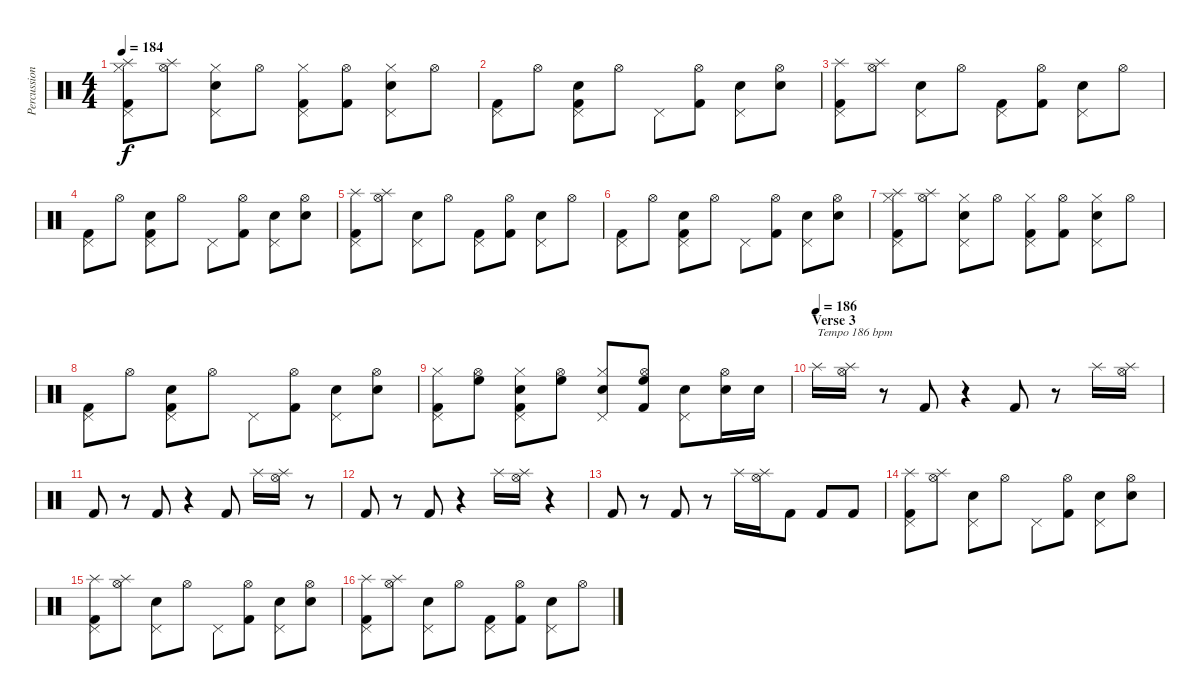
\track ("Percussion" "Percussion") {instrument percussion}
\staff {score}
\articulation defaults
\ts (4 4)
\tempo 184
\clef neutral
\ks c
("Pedal Hi-Hat (hit)" "Hi-Hat (closed)" "Splash (hit)" "Kick (hit) 2").8{dy f} ("Hi-Hat (open)" "Splash (hit)").8 ("Pedal Hi-Hat (hit)" "Hi-Hat (closed)" "Snare (hit) 2").8 "Hi-Hat (open)".8 ("Pedal Hi-Hat (hit)" "Hi-Hat (closed)" "Kick (hit) 2").8 ("Hi-Hat (open)" "Kick (hit) 2").8 ("Pedal Hi-Hat (hit)" "Hi-Hat (closed)" "Snare (hit) 2").8 "Hi-Hat (open)".8 |
("Pedal Hi-Hat (hit)" "Kick (hit) 2").8 "Hi-Hat (open)".8 ("Pedal Hi-Hat (hit)" "Snare (hit) 2" "Kick (hit) 2").8 "Hi-Hat (open)".8 "Pedal Hi-Hat (hit)".8 ("Hi-Hat (open)" "Kick (hit) 2").8 ("Pedal Hi-Hat (hit)" "Snare (hit) 2").8 ("Hi-Hat (open)" "Snare (hit) 2").8 |
("Pedal Hi-Hat (hit)" "Splash (hit)" "Kick (hit) 2").8 ("Hi-Hat (open)" "Splash (hit)").8 ("Pedal Hi-Hat (hit)" "Snare (hit) 2").8 "Hi-Hat (open)".8 ("Pedal Hi-Hat (hit)" "Kick (hit) 2").8 ("Hi-Hat (open)" "Kick (hit) 2").8 ("Pedal Hi-Hat (hit)" "Snare (hit) 2").8 "Hi-Hat (open)".8 |
("Pedal Hi-Hat (hit)" "Kick (hit) 2").8 "Hi-Hat (open)".8 ("Pedal Hi-Hat (hit)" "Snare (hit) 2" "Kick (hit) 2").8 "Hi-Hat (open)".8 "Pedal Hi-Hat (hit)".8 ("Hi-Hat (open)" "Kick (hit) 2").8 ("Pedal Hi-Hat (hit)" "Snare (hit) 2").8 ("Hi-Hat (open)" "Snare (hit) 2").8 |
("Pedal Hi-Hat (hit)" "Splash (hit)" "Kick (hit) 2").8 ("Hi-Hat (open)" "Splash (hit)").8 ("Pedal Hi-Hat (hit)" "Snare (hit) 2").8 "Hi-Hat (open)".8 ("Pedal Hi-Hat (hit)" "Kick (hit) 2").8 ("Hi-Hat (open)" "Kick (hit) 2").8 ("Pedal Hi-Hat (hit)" "Snare (hit) 2").8 "Hi-Hat (open)".8 |
("Pedal Hi-Hat (hit)" "Kick (hit) 2").8 "Hi-Hat (open)".8 ("Pedal Hi-Hat (hit)" "Snare (hit) 2" "Kick (hit) 2").8 "Hi-Hat (open)".8 "Pedal Hi-Hat (hit)".8 ("Hi-Hat (open)" "Kick (hit) 2").8 ("Pedal Hi-Hat (hit)" "Snare (hit) 2").8 ("Hi-Hat (open)" "Snare (hit) 2").8 |
("Pedal Hi-Hat (hit)" "Hi-Hat (closed)" "Splash (hit)" "Kick (hit) 2").8 ("Hi-Hat (open)" "Splash (hit)").8 ("Pedal Hi-Hat (hit)" "Hi-Hat (closed)" "Snare (hit) 2").8 "Hi-Hat (open)".8 ("Pedal Hi-Hat (hit)" "Hi-Hat (closed)" "Kick (hit) 2").8 ("Hi-Hat (open)" "Kick (hit) 2").8 ("Pedal Hi-Hat (hit)" "Hi-Hat (closed)" "Snare (hit) 2").8 "Hi-Hat (open)".8 |
("Pedal Hi-Hat (hit)" "Kick (hit) 2").8 "Hi-Hat (open)".8 ("Pedal Hi-Hat (hit)" "Snare (hit) 2" "Kick (hit) 2").8 "Hi-Hat (open)".8 "Pedal Hi-Hat (hit)".8 ("Hi-Hat (open)" "Kick (hit) 2").8 ("Pedal Hi-Hat (hit)" "Snare (hit) 2").8 ("Hi-Hat (open)" "Snare (hit) 2").8 |
("Pedal Hi-Hat (hit)" "Hi-Hat (closed)" "Kick (hit) 2").8 ("Hi-Hat (open)" "High Floor Tom (hit)").8 ("Pedal Hi-Hat (hit)" "Hi-Hat (closed)" "Snare (hit) 2" "Kick (hit) 2").8 ("Hi-Hat (open)" "High Floor Tom (hit)").8 ("Pedal Hi-Hat (hit)" "Hi-Hat (closed)" "Snare (hit) 2").8 ("Hi-Hat (open)" "High Floor Tom (hit)" "Kick (hit) 2").8 ("Pedal Hi-Hat (hit)" "Snare (hit) 2").8 ("Hi-Hat (open)" "Snare (hit) 2").16 "Snare (hit) 2".16 |
\section ("" "Verse 3")
\tempo (186)
"Splash (hit)".16{txt "Tempo 186 bpm"} ("Hi-Hat (open)" "Splash (hit)").16 r.8 "Kick (hit) 2".8 r.4 "Kick (hit) 2".8 r.8 "Splash (hit)".16 ("Hi-Hat (open)" "Splash (hit)").16 |
"Kick (hit) 2".8 r.8 "Kick (hit) 2".8 r.4 "Kick (hit) 2".8 "Splash (hit)".16 ("Hi-Hat (open)" "Splash (hit)").16 r.8 |
"Kick (hit) 2".8 r.8 "Kick (hit) 2".8 r.4 "Splash (hit)".16 ("Hi-Hat (open)" "Splash (hit)").16 r.4 |
"Kick (hit) 2".8 r.8 "Kick (hit) 2".8 r.8 "Splash (hit)".16 ("Hi-Hat (open)" "Splash (hit)").16 "Kick (hit) 2".8 "Kick (hit) 2".8 "Kick (hit) 2".8 |
("Pedal Hi-Hat (hit)" "Splash (hit)" "Kick (hit) 2").8 ("Hi-Hat (open)" "Splash (hit)").8 ("Pedal Hi-Hat (hit)" "Snare (hit) 2").8 "Hi-Hat (open)".8 "Pedal Hi-Hat (hit)".8 ("Hi-Hat (open)" "Kick (hit) 2").8 ("Pedal Hi-Hat (hit)" "Snare (hit) 2").8 ("Hi-Hat (open)" "Snare (hit) 2").8 |
("Pedal Hi-Hat (hit)" "Splash (hit)" "Kick (hit) 2").8 ("Hi-Hat (open)" "Splash (hit)").8 ("Pedal Hi-Hat (hit)" "Snare (hit) 2").8 "Hi-Hat (open)".8 "Pedal Hi-Hat (hit)".8 ("Hi-Hat (open)" "Kick (hit) 2").8 ("Pedal Hi-Hat (hit)" "Snare (hit) 2").8 ("Hi-Hat (open)" "Snare (hit) 2").8 |
("Pedal Hi-Hat (hit)" "Splash (hit)" "Kick (hit) 2").8 ("Hi-Hat (open)" "Splash (hit)").8 ("Pedal Hi-Hat (hit)" "Snare (hit) 2").8 "Hi-Hat (open)".8 ("Pedal Hi-Hat (hit)" "Kick (hit) 2").8 ("Hi-Hat (open)" "Kick (hit) 2").8 ("Pedal Hi-Hat (hit)" "Snare (hit) 2").8 "Hi-Hat (open)".8
